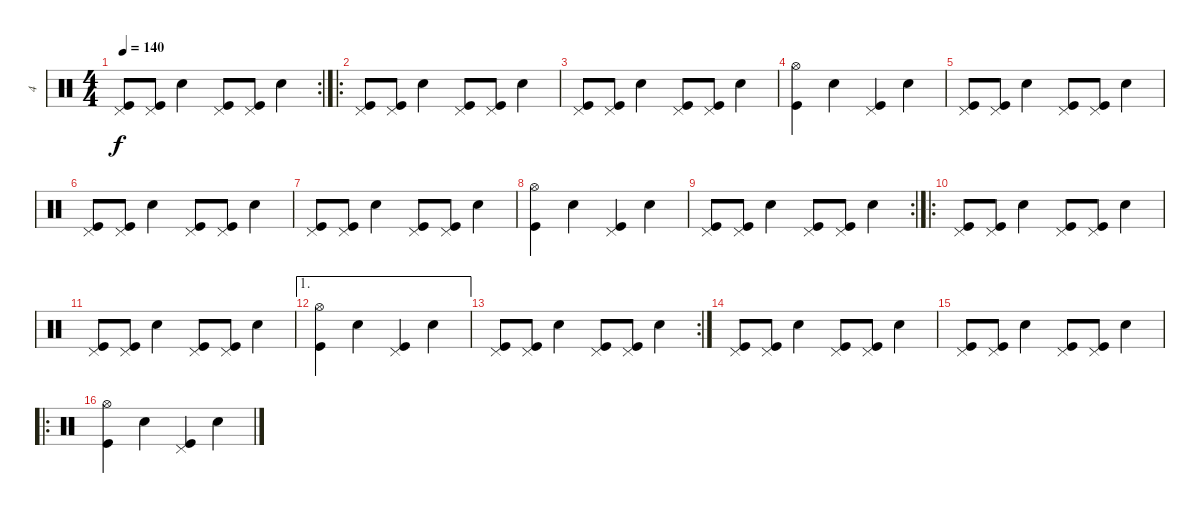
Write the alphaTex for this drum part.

\track ("4" "4") {instrument percussion}
\staff {score}
\articulation defaults
\rc 2
\ts (4 4)
\tempo 140
\clef neutral
\ks c
("Pedal Hi-Hat (hit)" "Kick (hit)").8{dy f} ("Pedal Hi-Hat (hit)" "Kick (hit)").8 "Snare (hit) 2".4 ("Pedal Hi-Hat (hit)" "Kick (hit)").8 ("Pedal Hi-Hat (hit)" "Kick (hit)").8 "Snare (hit) 2".4 |
\ro
("Pedal Hi-Hat (hit)" "Kick (hit)").8 ("Pedal Hi-Hat (hit)" "Kick (hit)").8 "Snare (hit) 2".4 ("Pedal Hi-Hat (hit)" "Kick (hit)").8 ("Pedal Hi-Hat (hit)" "Kick (hit)").8 "Snare (hit) 2".4 |
("Pedal Hi-Hat (hit)" "Kick (hit)").8 ("Pedal Hi-Hat (hit)" "Kick (hit)").8 "Snare (hit) 2".4 ("Pedal Hi-Hat (hit)" "Kick (hit)").8 ("Pedal Hi-Hat (hit)" "Kick (hit)").8 "Snare (hit) 2".4 |
("Hi-Hat (open)" "Kick (hit)").4 "Snare (hit) 2".4 ("Pedal Hi-Hat (hit)" "Kick (hit)").4 "Snare (hit) 2".4 |
("Pedal Hi-Hat (hit)" "Kick (hit)").8 ("Pedal Hi-Hat (hit)" "Kick (hit)").8 "Snare (hit) 2".4 ("Pedal Hi-Hat (hit)" "Kick (hit)").8 ("Pedal Hi-Hat (hit)" "Kick (hit)").8 "Snare (hit) 2".4 |
("Pedal Hi-Hat (hit)" "Kick (hit)").8 ("Pedal Hi-Hat (hit)" "Kick (hit)").8 "Snare (hit) 2".4 ("Pedal Hi-Hat (hit)" "Kick (hit)").8 ("Pedal Hi-Hat (hit)" "Kick (hit)").8 "Snare (hit) 2".4 |
("Pedal Hi-Hat (hit)" "Kick (hit)").8 ("Pedal Hi-Hat (hit)" "Kick (hit)").8 "Snare (hit) 2".4 ("Pedal Hi-Hat (hit)" "Kick (hit)").8 ("Pedal Hi-Hat (hit)" "Kick (hit)").8 "Snare (hit) 2".4 |
("Hi-Hat (open)" "Kick (hit)").4 "Snare (hit) 2".4 ("Pedal Hi-Hat (hit)" "Kick (hit)").4 "Snare (hit) 2".4 |
\rc 2
("Pedal Hi-Hat (hit)" "Kick (hit)").8 ("Pedal Hi-Hat (hit)" "Kick (hit)").8 "Snare (hit) 2".4 ("Pedal Hi-Hat (hit)" "Kick (hit)").8 ("Pedal Hi-Hat (hit)" "Kick (hit)").8 "Snare (hit) 2".4 |
\ro
("Pedal Hi-Hat (hit)" "Kick (hit)").8 ("Pedal Hi-Hat (hit)" "Kick (hit)").8 "Snare (hit) 2".4 ("Pedal Hi-Hat (hit)" "Kick (hit)").8 ("Pedal Hi-Hat (hit)" "Kick (hit)").8 "Snare (hit) 2".4 |
("Pedal Hi-Hat (hit)" "Kick (hit)").8 ("Pedal Hi-Hat (hit)" "Kick (hit)").8 "Snare (hit) 2".4 ("Pedal Hi-Hat (hit)" "Kick (hit)").8 ("Pedal Hi-Hat (hit)" "Kick (hit)").8 "Snare (hit) 2".4 |
\ae 1
("Hi-Hat (open)" "Kick (hit)").4 "Snare (hit) 2".4 ("Pedal Hi-Hat (hit)" "Kick (hit)").4 "Snare (hit) 2".4 |
\rc 2
("Pedal Hi-Hat (hit)" "Kick (hit)").8 ("Pedal Hi-Hat (hit)" "Kick (hit)").8 "Snare (hit) 2".4 ("Pedal Hi-Hat (hit)" "Kick (hit)").8 ("Pedal Hi-Hat (hit)" "Kick (hit)").8 "Snare (hit) 2".4 |
("Pedal Hi-Hat (hit)" "Kick (hit)").8 ("Pedal Hi-Hat (hit)" "Kick (hit)").8 "Snare (hit) 2".4 ("Pedal Hi-Hat (hit)" "Kick (hit)").8 ("Pedal Hi-Hat (hit)" "Kick (hit)").8 "Snare (hit) 2".4 |
("Pedal Hi-Hat (hit)" "Kick (hit)").8 ("Pedal Hi-Hat (hit)" "Kick (hit)").8 "Snare (hit) 2".4 ("Pedal Hi-Hat (hit)" "Kick (hit)").8 ("Pedal Hi-Hat (hit)" "Kick (hit)").8 "Snare (hit) 2".4 |
\ro
("Hi-Hat (open)" "Kick (hit)").4 "Snare (hit) 2".4 ("Pedal Hi-Hat (hit)" "Kick (hit)").4 "Snare (hit) 2".4
